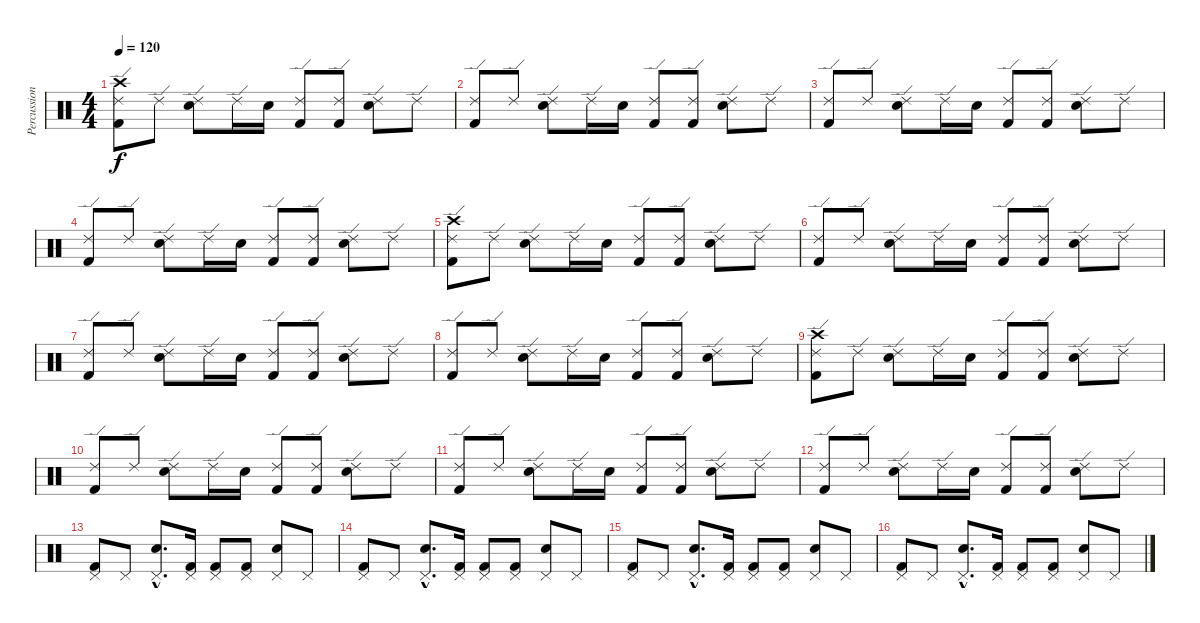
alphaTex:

\track ("Percussion" "Percussion") {instrument percussion}
\staff {score}
\articulation defaults
\ts (4 4)
\tempo 120
\clef neutral
\ks c
("Crash high (hit)" "Kick (hit) 2" "Ride (edge) 2").8{dy f} "Ride (edge) 2".8 ("Electric Snare (hit)" "Ride (edge) 2").8 "Ride (edge) 2".16 "Electric Snare (hit)".16 ("Kick (hit) 2" "Ride (edge) 2").8 ("Kick (hit) 2" "Ride (edge) 2").8 ("Electric Snare (hit)" "Ride (edge) 2").8 "Ride (edge) 2".8 |
("Kick (hit) 2" "Ride (edge) 2").8 "Ride (edge) 2".8 ("Electric Snare (hit)" "Ride (edge) 2").8 "Ride (edge) 2".16 "Electric Snare (hit)".16 ("Kick (hit) 2" "Ride (edge) 2").8 ("Kick (hit) 2" "Ride (edge) 2").8 ("Electric Snare (hit)" "Ride (edge) 2").8 "Ride (edge) 2".8 |
("Kick (hit) 2" "Ride (edge) 2").8 "Ride (edge) 2".8 ("Electric Snare (hit)" "Ride (edge) 2").8 "Ride (edge) 2".16 "Electric Snare (hit)".16 ("Kick (hit) 2" "Ride (edge) 2").8 ("Kick (hit) 2" "Ride (edge) 2").8 ("Electric Snare (hit)" "Ride (edge) 2").8 "Ride (edge) 2".8 |
("Kick (hit) 2" "Ride (edge) 2").8 "Ride (edge) 2".8 ("Electric Snare (hit)" "Ride (edge) 2").8 "Ride (edge) 2".16 "Electric Snare (hit)".16 ("Kick (hit) 2" "Ride (edge) 2").8 ("Kick (hit) 2" "Ride (edge) 2").8 ("Electric Snare (hit)" "Ride (edge) 2").8 "Ride (edge) 2".8 |
("Crash high (hit)" "Kick (hit) 2" "Ride (edge) 2").8 "Ride (edge) 2".8 ("Electric Snare (hit)" "Ride (edge) 2").8 "Ride (edge) 2".16 "Electric Snare (hit)".16 ("Kick (hit) 2" "Ride (edge) 2").8 ("Kick (hit) 2" "Ride (edge) 2").8 ("Electric Snare (hit)" "Ride (edge) 2").8 "Ride (edge) 2".8 |
("Kick (hit) 2" "Ride (edge) 2").8 "Ride (edge) 2".8 ("Electric Snare (hit)" "Ride (edge) 2").8 "Ride (edge) 2".16 "Electric Snare (hit)".16 ("Kick (hit) 2" "Ride (edge) 2").8 ("Kick (hit) 2" "Ride (edge) 2").8 ("Electric Snare (hit)" "Ride (edge) 2").8 "Ride (edge) 2".8 |
("Kick (hit) 2" "Ride (edge) 2").8 "Ride (edge) 2".8 ("Electric Snare (hit)" "Ride (edge) 2").8 "Ride (edge) 2".16 "Electric Snare (hit)".16 ("Kick (hit) 2" "Ride (edge) 2").8 ("Kick (hit) 2" "Ride (edge) 2").8 ("Electric Snare (hit)" "Ride (edge) 2").8 "Ride (edge) 2".8 |
("Kick (hit) 2" "Ride (edge) 2").8 "Ride (edge) 2".8 ("Electric Snare (hit)" "Ride (edge) 2").8 "Ride (edge) 2".16 "Electric Snare (hit)".16 ("Kick (hit) 2" "Ride (edge) 2").8 ("Kick (hit) 2" "Ride (edge) 2").8 ("Electric Snare (hit)" "Ride (edge) 2").8 "Ride (edge) 2".8 |
("Crash high (hit)" "Kick (hit) 2" "Ride (edge) 2").8 "Ride (edge) 2".8 ("Electric Snare (hit)" "Ride (edge) 2").8 "Ride (edge) 2".16 "Electric Snare (hit)".16 ("Kick (hit) 2" "Ride (edge) 2").8 ("Kick (hit) 2" "Ride (edge) 2").8 ("Electric Snare (hit)" "Ride (edge) 2").8 "Ride (edge) 2".8 |
("Kick (hit) 2" "Ride (edge) 2").8 "Ride (edge) 2".8 ("Electric Snare (hit)" "Ride (edge) 2").8 "Ride (edge) 2".16 "Electric Snare (hit)".16 ("Kick (hit) 2" "Ride (edge) 2").8 ("Kick (hit) 2" "Ride (edge) 2").8 ("Electric Snare (hit)" "Ride (edge) 2").8 "Ride (edge) 2".8 |
("Kick (hit) 2" "Ride (edge) 2").8 "Ride (edge) 2".8 ("Electric Snare (hit)" "Ride (edge) 2").8 "Ride (edge) 2".16 "Electric Snare (hit)".16 ("Kick (hit) 2" "Ride (edge) 2").8 ("Kick (hit) 2" "Ride (edge) 2").8 ("Electric Snare (hit)" "Ride (edge) 2").8 "Ride (edge) 2".8 |
("Kick (hit) 2" "Ride (edge) 2").8 "Ride (edge) 2".8 ("Electric Snare (hit)" "Ride (edge) 2").8 "Ride (edge) 2".16 "Electric Snare (hit)".16 ("Kick (hit) 2" "Ride (edge) 2").8 ("Kick (hit) 2" "Ride (edge) 2").8 ("Electric Snare (hit)" "Ride (edge) 2").8 "Ride (edge) 2".8 |
("Kick (hit) 2" "Pedal Hi-Hat (hit)").8 "Pedal Hi-Hat (hit)".8 ("Electric Snare (hit)"{hac} "Pedal Hi-Hat (hit)"{hac}).8{d} ("Kick (hit) 2" "Pedal Hi-Hat (hit)").16 ("Kick (hit) 2" "Pedal Hi-Hat (hit)").8 ("Kick (hit) 2" "Pedal Hi-Hat (hit)").8 ("Electric Snare (hit)" "Pedal Hi-Hat (hit)").8 "Pedal Hi-Hat (hit)".8 |
("Kick (hit) 2" "Pedal Hi-Hat (hit)").8 "Pedal Hi-Hat (hit)".8 ("Electric Snare (hit)"{hac} "Pedal Hi-Hat (hit)"{hac}).8{d} ("Kick (hit) 2" "Pedal Hi-Hat (hit)").16 ("Kick (hit) 2" "Pedal Hi-Hat (hit)").8 ("Kick (hit) 2" "Pedal Hi-Hat (hit)").8 ("Electric Snare (hit)" "Pedal Hi-Hat (hit)").8 "Pedal Hi-Hat (hit)".8 |
("Kick (hit) 2" "Pedal Hi-Hat (hit)").8 "Pedal Hi-Hat (hit)".8 ("Electric Snare (hit)"{hac} "Pedal Hi-Hat (hit)"{hac}).8{d} ("Kick (hit) 2" "Pedal Hi-Hat (hit)").16 ("Kick (hit) 2" "Pedal Hi-Hat (hit)").8 ("Kick (hit) 2" "Pedal Hi-Hat (hit)").8 ("Electric Snare (hit)" "Pedal Hi-Hat (hit)").8 "Pedal Hi-Hat (hit)".8 |
("Kick (hit) 2" "Pedal Hi-Hat (hit)").8 "Pedal Hi-Hat (hit)".8 ("Electric Snare (hit)"{hac} "Pedal Hi-Hat (hit)"{hac}).8{d} ("Kick (hit) 2" "Pedal Hi-Hat (hit)").16 ("Kick (hit) 2" "Pedal Hi-Hat (hit)").8 ("Kick (hit) 2" "Pedal Hi-Hat (hit)").8 ("Electric Snare (hit)" "Pedal Hi-Hat (hit)").8 "Pedal Hi-Hat (hit)".8
